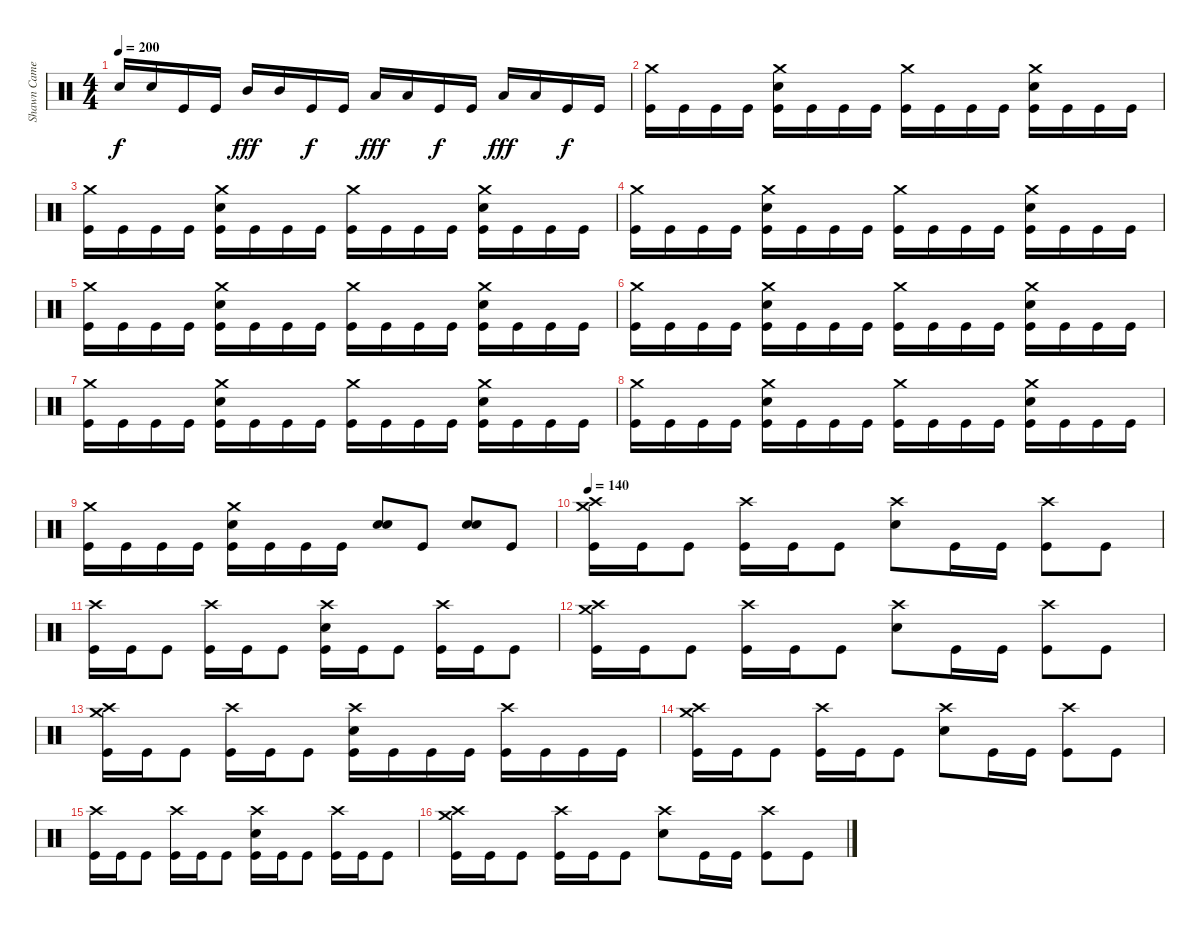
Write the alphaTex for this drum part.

\track ("Shawn Cameron" "Shawn Came") {instrument percussion}
\staff {score}
\articulation defaults
\ts (4 4)
\tempo 200
\clef neutral
\ks c "Snare (hit) 2".16{dy f} "Snare (hit) 2".16 "Kick (hit)".16 "Kick (hit)".16 "Mid Tom (hit)".16{dy fff} "Mid Tom (hit)".16 "Kick (hit)".16{dy f} "Kick (hit)".16 "Low Tom (hit)".16{dy fff} "Low Tom (hit)".16 "Kick (hit)".16{dy f} "Kick (hit)".16 "Low Floor Tom (hit)".16{dy fff} "Low Floor Tom (hit)".16 "Kick (hit)".16{dy f} "Kick (hit)".16
|
("Crash medium (hit)" "Kick (hit)").16 "Kick (hit)".16 "Kick (hit)".16 "Kick (hit)".16 ("Crash medium (hit)" "Snare (hit) 2" "Kick (hit)").16 "Kick (hit)".16 "Kick (hit)".16 "Kick (hit)".16 ("Crash medium (hit)" "Kick (hit)").16 "Kick (hit)".16 "Kick (hit)".16 "Kick (hit)".16 ("Crash medium (hit)" "Snare (hit) 2" "Kick (hit)").16 "Kick (hit)".16 "Kick (hit)".16 "Kick (hit)".16 |
("Crash medium (hit)" "Kick (hit)").16 "Kick (hit)".16 "Kick (hit)".16 "Kick (hit)".16 ("Crash medium (hit)" "Snare (hit) 2" "Kick (hit)").16 "Kick (hit)".16 "Kick (hit)".16 "Kick (hit)".16 ("Crash medium (hit)" "Kick (hit)").16 "Kick (hit)".16 "Kick (hit)".16 "Kick (hit)".16 ("Crash medium (hit)" "Snare (hit) 2" "Kick (hit)").16 "Kick (hit)".16 "Kick (hit)".16 "Kick (hit)".16 |
("Crash medium (hit)" "Kick (hit)").16 "Kick (hit)".16 "Kick (hit)".16 "Kick (hit)".16 ("Crash medium (hit)" "Snare (hit) 2" "Kick (hit)").16 "Kick (hit)".16 "Kick (hit)".16 "Kick (hit)".16 ("Crash medium (hit)" "Kick (hit)").16 "Kick (hit)".16 "Kick (hit)".16 "Kick (hit)".16 ("Crash medium (hit)" "Snare (hit) 2" "Kick (hit)").16 "Kick (hit)".16 "Kick (hit)".16 "Kick (hit)".16 |
("Crash medium (hit)" "Kick (hit)").16 "Kick (hit)".16 "Kick (hit)".16 "Kick (hit)".16 ("Crash medium (hit)" "Snare (hit) 2" "Kick (hit)").16 "Kick (hit)".16 "Kick (hit)".16 "Kick (hit)".16 ("Crash medium (hit)" "Kick (hit)").16 "Kick (hit)".16 "Kick (hit)".16 "Kick (hit)".16 ("Crash medium (hit)" "Snare (hit) 2" "Kick (hit)").16 "Kick (hit)".16 "Kick (hit)".16 "Kick (hit)".16 |
("Crash medium (hit)" "Kick (hit)").16 "Kick (hit)".16 "Kick (hit)".16 "Kick (hit)".16 ("Crash medium (hit)" "Snare (hit) 2" "Kick (hit)").16 "Kick (hit)".16 "Kick (hit)".16 "Kick (hit)".16 ("Crash medium (hit)" "Kick (hit)").16 "Kick (hit)".16 "Kick (hit)".16 "Kick (hit)".16 ("Crash medium (hit)" "Snare (hit) 2" "Kick (hit)").16 "Kick (hit)".16 "Kick (hit)".16 "Kick (hit)".16 |
("Crash medium (hit)" "Kick (hit)").16 "Kick (hit)".16 "Kick (hit)".16 "Kick (hit)".16 ("Crash medium (hit)" "Snare (hit) 2" "Kick (hit)").16 "Kick (hit)".16 "Kick (hit)".16 "Kick (hit)".16 ("Crash medium (hit)" "Kick (hit)").16 "Kick (hit)".16 "Kick (hit)".16 "Kick (hit)".16 ("Crash medium (hit)" "Snare (hit) 2" "Kick (hit)").16 "Kick (hit)".16 "Kick (hit)".16 "Kick (hit)".16 |
("Crash medium (hit)" "Kick (hit)").16 "Kick (hit)".16 "Kick (hit)".16 "Kick (hit)".16 ("Crash medium (hit)" "Snare (hit) 2" "Kick (hit)").16 "Kick (hit)".16 "Kick (hit)".16 "Kick (hit)".16 ("Crash medium (hit)" "Kick (hit)").16 "Kick (hit)".16 "Kick (hit)".16 "Kick (hit)".16 ("Crash medium (hit)" "Snare (hit) 2" "Kick (hit)").16 "Kick (hit)".16 "Kick (hit)".16 "Kick (hit)".16 |
("Crash medium (hit)" "Kick (hit)").16 "Kick (hit)".16 "Kick (hit)".16 "Kick (hit)".16 ("Crash medium (hit)" "Snare (hit) 2" "Kick (hit)").16 "Kick (hit)".16 "Kick (hit)".16 "Kick (hit)".16 ("Snare (hit) 2" "Snare (hit) 2").8{bd 240} "Kick (hit)".8 ("Snare (hit) 2" "Snare (hit) 2").8{bd 240} "Kick (hit)".8 |
\tempo 140
("Crash medium (hit)" "Crash high (hit)" "Kick (hit)").16 "Kick (hit)".16 "Kick (hit)".8 ("Crash high (hit)" "Kick (hit)").16 "Kick (hit)".16 "Kick (hit)".8 ("Crash high (hit)" "Snare (hit) 2").8 "Kick (hit)".16 "Kick (hit)".16 ("Crash high (hit)" "Kick (hit)").8 "Kick (hit)".8 |
("Crash high (hit)" "Kick (hit)").16 "Kick (hit)".16 "Kick (hit)".8 ("Crash high (hit)" "Kick (hit)").16 "Kick (hit)".16 "Kick (hit)".8 ("Crash high (hit)" "Snare (hit) 2" "Kick (hit)").16 "Kick (hit)".16 "Kick (hit)".8 ("Crash high (hit)" "Kick (hit)").16 "Kick (hit)".16 "Kick (hit)".8 |
("Crash medium (hit)" "Crash high (hit)" "Kick (hit)").16 "Kick (hit)".16 "Kick (hit)".8 ("Crash high (hit)" "Kick (hit)").16 "Kick (hit)".16 "Kick (hit)".8 ("Crash high (hit)" "Snare (hit) 2").8 "Kick (hit)".16 "Kick (hit)".16 ("Crash high (hit)" "Kick (hit)").8 "Kick (hit)".8 |
("Crash medium (hit)" "Crash high (hit)" "Kick (hit)").16 "Kick (hit)".16 "Kick (hit)".8 ("Crash high (hit)" "Kick (hit)").16 "Kick (hit)".16 "Kick (hit)".8 ("Crash high (hit)" "Snare (hit) 2" "Kick (hit)").16 "Kick (hit)".16 "Kick (hit)".16 "Kick (hit)".16 ("Crash high (hit)" "Kick (hit)").16 "Kick (hit)".16 "Kick (hit)".16 "Kick (hit)".16 |
("Crash medium (hit)" "Crash high (hit)" "Kick (hit)").16 "Kick (hit)".16 "Kick (hit)".8 ("Crash high (hit)" "Kick (hit)").16 "Kick (hit)".16 "Kick (hit)".8 ("Crash high (hit)" "Snare (hit) 2").8 "Kick (hit)".16 "Kick (hit)".16 ("Crash high (hit)" "Kick (hit)").8 "Kick (hit)".8 |
("Crash high (hit)" "Kick (hit)").16 "Kick (hit)".16 "Kick (hit)".8 ("Crash high (hit)" "Kick (hit)").16 "Kick (hit)".16 "Kick (hit)".8 ("Crash high (hit)" "Snare (hit) 2" "Kick (hit)").16 "Kick (hit)".16 "Kick (hit)".8 ("Crash high (hit)" "Kick (hit)").16 "Kick (hit)".16 "Kick (hit)".8 |
("Crash medium (hit)" "Crash high (hit)" "Kick (hit)").16 "Kick (hit)".16 "Kick (hit)".8 ("Crash high (hit)" "Kick (hit)").16 "Kick (hit)".16 "Kick (hit)".8 ("Crash high (hit)" "Snare (hit) 2").8 "Kick (hit)".16 "Kick (hit)".16 ("Crash high (hit)" "Kick (hit)").8 "Kick (hit)".8
